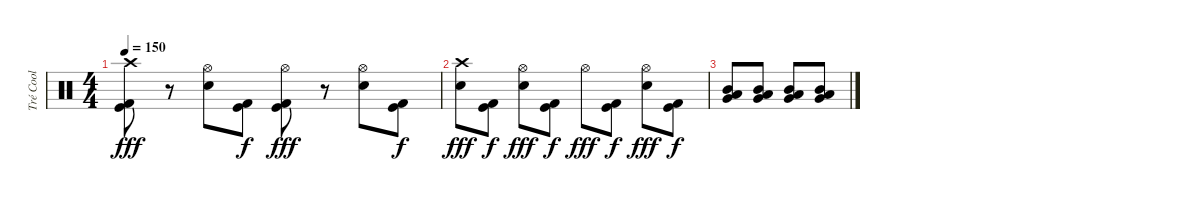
\track ("Tré Cool" "Tré Cool") {instrument percussion}
\staff {score}
\articulation defaults
\ts (4 4)
\tempo 150
\clef neutral
\ks c
("Crash high (hit)" "Kick (hit)" "Kick (hit) 2").8{dy fff} r.8 ("Hi-Hat (open)" "Snare (hit) 2").8 ("Kick (hit)" "Kick (hit) 2").8{dy f} ("Hi-Hat (open)" "Kick (hit)" "Kick (hit) 2").8{dy fff} r.8 ("Hi-Hat (open)" "Snare (hit) 2").8 ("Kick (hit)" "Kick (hit) 2").8{dy f} |
("Crash high (hit)" "Snare (hit) 2").8{dy fff} ("Kick (hit)" "Kick (hit) 2").8{dy f} ("Hi-Hat (open)" "Snare (hit) 2").8{dy fff} ("Kick (hit)" "Kick (hit) 2").8{dy f} "Hi-Hat (open)".8{dy fff} ("Kick (hit)" "Kick (hit) 2").8{dy f} ("Hi-Hat (open)" "Snare (hit) 2").8{dy fff} ("Kick (hit)" "Kick (hit) 2").8{dy f} |
("Mid Tom (hit)" "Low Tom (hit)" "Very Low Tom (hit)").8 ("Mid Tom (hit)" "Low Tom (hit)" "Very Low Tom (hit)").8 ("Mid Tom (hit)" "Low Tom (hit)" "Very Low Tom (hit)").8 ("Mid Tom (hit)" "Low Tom (hit)" "Very Low Tom (hit)").8
